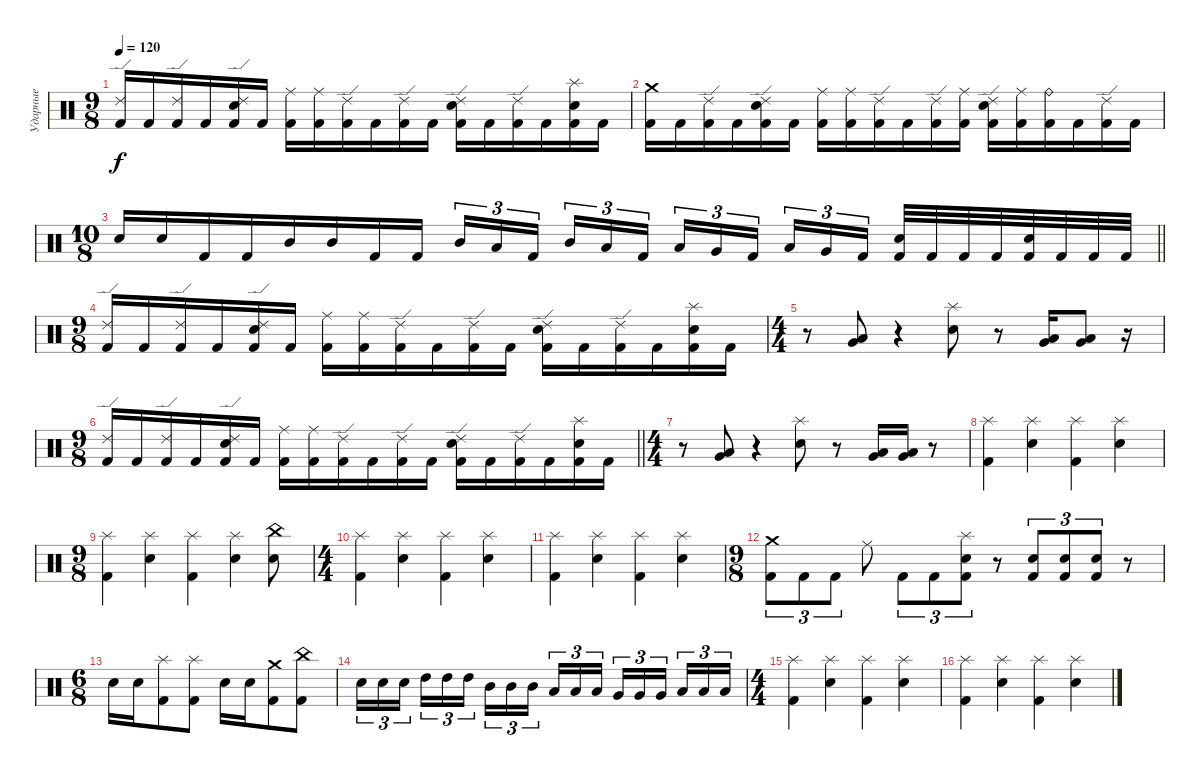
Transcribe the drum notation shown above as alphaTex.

\track ("Ударные" "Ударные") {instrument percussion}
\staff {score}
\articulation defaults
\ts (9 8)
\tempo 120
\clef neutral
\ks c
("Ride (edge) 2" "Kick (hit) 2").16{dy f} "Kick (hit) 2".16 ("Ride (edge) 2" "Kick (hit) 2").16 "Kick (hit) 2".16 ("Ride (edge) 2" "Snare (hit) 2" "Kick (hit) 2").16 "Kick (hit) 2".16 ("Ride (middle)" "Kick (hit) 2").16 ("Ride (middle)" "Kick (hit) 2").16 ("Ride (edge) 2" "Kick (hit) 2").16 "Kick (hit) 2".16 ("Ride (edge) 2" "Kick (hit) 2").16 "Kick (hit) 2".16 ("Ride (edge) 2" "Snare (hit) 2" "Kick (hit) 2").16 "Kick (hit) 2".16 ("Ride (edge) 2" "Kick (hit) 2").16 "Kick (hit) 2".16 ("Splash (hit)" "Snare (hit) 2" "Kick (hit) 2").16 "Kick (hit) 2".16 |
("Crash medium (hit)" "Kick (hit) 2").16 "Kick (hit) 2".16 ("Ride (edge) 2" "Kick (hit) 2").16 "Kick (hit) 2".16 ("Ride (edge) 2" "Snare (hit) 2" "Kick (hit) 2").16 "Kick (hit) 2".16 ("Ride (middle)" "Kick (hit) 2").16 ("Ride (middle)" "Kick (hit) 2").16 ("Ride (edge) 2" "Kick (hit) 2").16 "Kick (hit) 2".16 ("Ride (edge) 2" "Kick (hit) 2").16 ("Ride (middle)" "Kick (hit) 2").16 ("Ride (edge) 2" "Snare (hit) 2" "Kick (hit) 2").16 ("Ride (middle)" "Kick (hit) 2").16 ("Ride (bell)" "Kick (hit) 2").16 "Kick (hit) 2".16 ("Ride (edge) 2" "Kick (hit) 2").16 "Kick (hit) 2".16 |
\ts (10 8)
\barLineRight lightlight "Snare (hit) 2".16 "Snare (hit) 2".16 "Kick (hit) 2".16 "Kick (hit) 2".16 "Mid Tom (hit)".16 "Mid Tom (hit)".16 "Kick (hit) 2".16 "Kick (hit) 2".16 "Mid Tom (hit)".16{tu (3 2)} "Low Tom (hit)".16{tu (3 2)} "Kick (hit) 2".16{tu (3 2)} "Mid Tom (hit)".16{tu (3 2)} "Low Tom (hit)".16{tu (3 2)} "Kick (hit) 2".16{tu (3 2)} "Low Tom (hit)".16{tu (3 2)} "Very Low Tom (hit)".16{tu (3 2)} "Kick (hit) 2".16{tu (3 2)} "Low Tom (hit)".16{tu (3 2)} "Very Low Tom (hit)".16{tu (3 2)} "Kick (hit) 2".16{tu (3 2)}
("Snare (hit) 2" "Kick (hit) 2").32 "Kick (hit) 2".32 "Kick (hit) 2".32 "Kick (hit) 2".32 ("Snare (hit) 2" "Kick (hit) 2").32 "Kick (hit) 2".32 "Kick (hit) 2".32 "Kick (hit) 2".32 |
\ts (9 8)
("Ride (edge) 2" "Kick (hit) 2").16 "Kick (hit) 2".16 ("Ride (edge) 2" "Kick (hit) 2").16 "Kick (hit) 2".16 ("Ride (edge) 2" "Snare (hit) 2" "Kick (hit) 2").16 "Kick (hit) 2".16 ("Ride (middle)" "Kick (hit) 2").16 ("Ride (middle)" "Kick (hit) 2").16 ("Ride (edge) 2" "Kick (hit) 2").16 "Kick (hit) 2".16 ("Ride (edge) 2" "Kick (hit) 2").16 "Kick (hit) 2".16 ("Ride (edge) 2" "Snare (hit) 2" "Kick (hit) 2").16 "Kick (hit) 2".16 ("Ride (edge) 2" "Kick (hit) 2").16 "Kick (hit) 2".16 ("Splash (hit)" "Snare (hit) 2" "Kick (hit) 2").16 "Kick (hit) 2".16 |
\ts (4 4)
r.8 ("Very Low Tom (hit)" "Low Floor Tom (hit)").8 r.4 ("Splash (hit)" "Snare (hit) 2").8 r.8 ("Very Low Tom (hit)" "Low Floor Tom (hit)").16 ("Very Low Tom (hit)" "Low Floor Tom (hit)").8 r.16 |
\ts (9 8)
\barLineRight lightlight
("Ride (edge) 2" "Kick (hit) 2").16 "Kick (hit) 2".16 ("Ride (edge) 2" "Kick (hit) 2").16 "Kick (hit) 2".16 ("Ride (edge) 2" "Snare (hit) 2" "Kick (hit) 2").16 "Kick (hit) 2".16 ("Ride (middle)" "Kick (hit) 2").16 ("Ride (middle)" "Kick (hit) 2").16 ("Ride (edge) 2" "Kick (hit) 2").16 "Kick (hit) 2".16 ("Ride (edge) 2" "Kick (hit) 2").16 "Kick (hit) 2".16 ("Ride (edge) 2" "Snare (hit) 2" "Kick (hit) 2").16 "Kick (hit) 2".16 ("Ride (edge) 2" "Kick (hit) 2").16 "Kick (hit) 2".16 ("Splash (hit)" "Snare (hit) 2" "Kick (hit) 2").16 "Kick (hit) 2".16 |
\ts (4 4)
r.8 ("Very Low Tom (hit)" "Low Floor Tom (hit)").8 r.4 ("Splash (hit)" "Snare (hit) 2").8 r.8 ("Very Low Tom (hit)" "Low Floor Tom (hit)").16 ("Very Low Tom (hit)" "Low Floor Tom (hit)").16 r.8 |
("Splash (hit)" "Kick (hit) 2").4 ("Splash (hit)" "Snare (hit) 2").4 ("Splash (hit)" "Kick (hit) 2").4 ("Splash (hit)" "Snare (hit) 2").4 |
\ts (9 8)
("Splash (hit)" "Kick (hit) 2").4 ("Splash (hit)" "Snare (hit) 2").4 ("Splash (hit)" "Kick (hit) 2").4 ("Splash (hit)" "Snare (hit) 2").4 ("China (hit)" "Snare (hit) 2").8 |
\ts (4 4)
("Splash (hit)" "Kick (hit) 2").4 ("Splash (hit)" "Snare (hit) 2").4 ("Splash (hit)" "Kick (hit) 2").4 ("Splash (hit)" "Snare (hit) 2").4 |
("Splash (hit)" "Kick (hit) 2").4 ("Splash (hit)" "Snare (hit) 2").4 ("Splash (hit)" "Kick (hit) 2").4 ("Splash (hit)" "Snare (hit) 2").4 |
\ts (9 8)
("Crash medium (hit)" "Kick (hit) 2").8{tu (3 2)} "Kick (hit) 2".8{tu (3 2)} "Kick (hit) 2".8{tu (3 2)} "Ride (middle)".8 "Kick (hit) 2".8{tu (3 2)} "Kick (hit) 2".8{tu (3 2)} ("Splash (hit)" "Snare (hit) 2" "Kick (hit) 2").8{tu (3 2)} r.8 ("Snare (hit) 2" "Kick (hit) 2").8{tu (3 2)} ("Snare (hit) 2" "Kick (hit) 2").8{tu (3 2)} ("Snare (hit) 2" "Kick (hit) 2").8{tu (3 2)} r.8 |
\ts (6 8)
"Snare (hit) 2".16 "Snare (hit) 2".16 ("Splash (hit)" "Kick (hit) 2").8 ("Splash (hit)" "Kick (hit) 2").8 "Snare (hit) 2".16 "Snare (hit) 2".16 ("Crash medium (hit)" "Kick (hit) 2").8 ("China (hit)" "Kick (hit) 2").8 |
"Snare (hit) 2".16{tu (3 2)} "Snare (hit) 2".16{tu (3 2)} "Snare (hit) 2".16{tu (3 2)} "High Tom (hit)".16{tu (3 2)} "High Tom (hit)".16{tu (3 2)} "High Tom (hit)".16{tu (3 2)} "Mid Tom (hit)".16{tu (3 2)} "Mid Tom (hit)".16{tu (3 2)} "Mid Tom (hit)".16{tu (3 2)} "Low Tom (hit)".16{tu (3 2)} "Low Tom (hit)".16{tu (3 2)} "Low Tom (hit)".16{tu (3 2)} "Very Low Tom (hit)".16{tu (3 2)} "Very Low Tom (hit)".16{tu (3 2)} "Very Low Tom (hit)".16{tu (3 2)} "Low Floor Tom (hit)".16{tu (3 2)} "Low Floor Tom (hit)".16{tu (3 2)} "Low Floor Tom (hit)".16{tu (3 2)} |
\ts (4 4)
("Splash (hit)" "Kick (hit) 2").4 ("Splash (hit)" "Snare (hit) 2").4 ("Splash (hit)" "Kick (hit) 2").4 ("Splash (hit)" "Snare (hit) 2").4 |
("Splash (hit)" "Kick (hit) 2").4 ("Splash (hit)" "Snare (hit) 2").4 ("Splash (hit)" "Kick (hit) 2").4 ("Splash (hit)" "Snare (hit) 2").4
